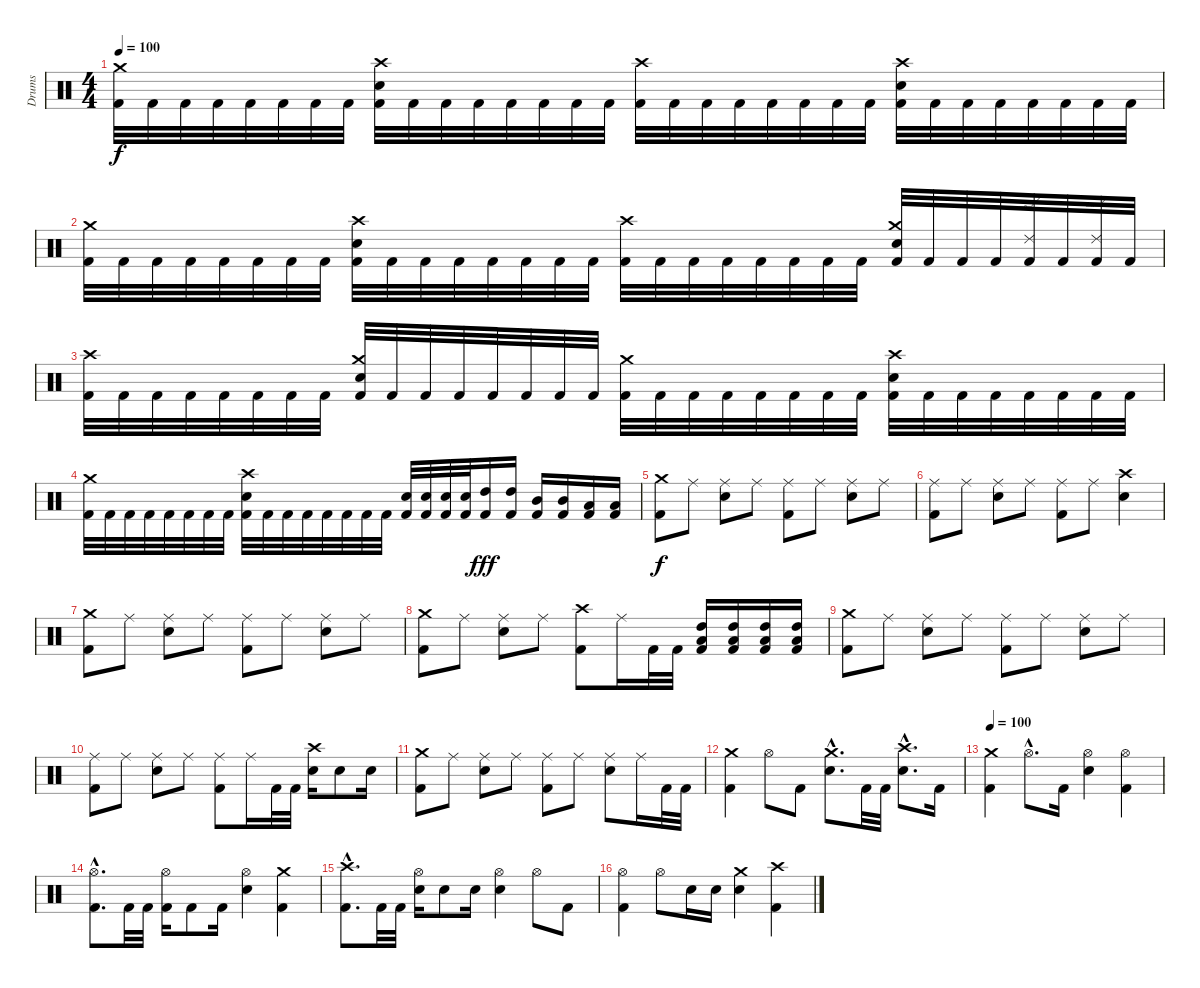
\track ("Drums" "Drums") {instrument percussion}
\staff {score}
\articulation defaults
\ts (4 4)
\tempo 100
\clef neutral
\ks c
("Kick (hit) 2" "Crash medium (hit)").32{dy f} "Kick (hit) 2".32 "Kick (hit) 2".32 "Kick (hit) 2".32 "Kick (hit) 2".32 "Kick (hit) 2".32 "Kick (hit) 2".32 "Kick (hit) 2".32 ("Kick (hit) 2" "Electric Snare (hit)" "Crash high (hit)").32 "Kick (hit) 2".32 "Kick (hit) 2".32 "Kick (hit) 2".32 "Kick (hit) 2".32 "Kick (hit) 2".32 "Kick (hit) 2".32 "Kick (hit) 2".32 ("Kick (hit) 2" "Crash high (hit)").32 "Kick (hit) 2".32 "Kick (hit) 2".32 "Kick (hit) 2".32 "Kick (hit) 2".32 "Kick (hit) 2".32 "Kick (hit) 2".32 "Kick (hit) 2".32 ("Kick (hit) 2" "Electric Snare (hit)" "Crash high (hit)").32 "Kick (hit) 2".32 "Kick (hit) 2".32 "Kick (hit) 2".32 "Kick (hit) 2".32 "Kick (hit) 2".32 "Kick (hit) 2".32 "Kick (hit) 2".32 |
("Kick (hit) 2" "Crash medium (hit)").32 "Kick (hit) 2".32 "Kick (hit) 2".32 "Kick (hit) 2".32 "Kick (hit) 2".32 "Kick (hit) 2".32 "Kick (hit) 2".32 "Kick (hit) 2".32 ("Kick (hit) 2" "Electric Snare (hit)" "Crash high (hit)").32 "Kick (hit) 2".32 "Kick (hit) 2".32 "Kick (hit) 2".32 "Kick (hit) 2".32 "Kick (hit) 2".32 "Kick (hit) 2".32 "Kick (hit) 2".32 ("Kick (hit) 2" "Crash high (hit)").32 "Kick (hit) 2".32 "Kick (hit) 2".32 "Kick (hit) 2".32 "Kick (hit) 2".32 "Kick (hit) 2".32 "Kick (hit) 2".32 "Kick (hit) 2".32 ("Kick (hit) 2" "Electric Snare (hit)" "Crash medium (hit)").32 "Kick (hit) 2".32 "Kick (hit) 2".32 "Kick (hit) 2".32 ("Kick (hit) 2" "Ride (edge) 2").32 "Kick (hit) 2".32 ("Kick (hit) 2" "Ride (edge) 2").32 "Kick (hit) 2".32 |
("Kick (hit) 2" "Crash high (hit)").32 "Kick (hit) 2".32 "Kick (hit) 2".32 "Kick (hit) 2".32 "Kick (hit) 2".32 "Kick (hit) 2".32 "Kick (hit) 2".32 "Kick (hit) 2".32 ("Kick (hit) 2" "Electric Snare (hit)" "Crash medium (hit)").32 "Kick (hit) 2".32 "Kick (hit) 2".32 "Kick (hit) 2".32 "Kick (hit) 2".32 "Kick (hit) 2".32 "Kick (hit) 2".32 "Kick (hit) 2".32 ("Kick (hit) 2" "Crash medium (hit)").32 "Kick (hit) 2".32 "Kick (hit) 2".32 "Kick (hit) 2".32 "Kick (hit) 2".32 "Kick (hit) 2".32 "Kick (hit) 2".32 "Kick (hit) 2".32 ("Kick (hit) 2" "Electric Snare (hit)" "Crash high (hit)").32 "Kick (hit) 2".32 "Kick (hit) 2".32 "Kick (hit) 2".32 "Kick (hit) 2".32 "Kick (hit) 2".32 "Kick (hit) 2".32 "Kick (hit) 2".32 |
("Kick (hit) 2" "Crash medium (hit)").32 "Kick (hit) 2".32 "Kick (hit) 2".32 "Kick (hit) 2".32 "Kick (hit) 2".32 "Kick (hit) 2".32 "Kick (hit) 2".32 "Kick (hit) 2".32 ("Kick (hit) 2" "Electric Snare (hit)" "Crash high (hit)").32 "Kick (hit) 2".32 "Kick (hit) 2".32 "Kick (hit) 2".32 "Kick (hit) 2".32 "Kick (hit) 2".32 "Kick (hit) 2".32 "Kick (hit) 2".32 ("Kick (hit) 2" "Electric Snare (hit)").32 ("Kick (hit) 2" "Electric Snare (hit)").32 ("Kick (hit) 2" "Electric Snare (hit)").32 ("Kick (hit) 2" "Electric Snare (hit)").32 ("Kick (hit) 2" "High Tom (hit)").16{dy fff} ("Kick (hit) 2" "High Tom (hit)").16 ("Kick (hit) 2" "Mid Tom (hit)").16 ("Kick (hit) 2" "Mid Tom (hit)").16 ("Kick (hit) 2" "Low Tom (hit)").16 ("Kick (hit) 2" "Low Tom (hit)").16 |
("Kick (hit) 2" "Crash medium (hit)").8{dy f} "Ride (middle)".8 ("Electric Snare (hit)" "Ride (middle)").8 "Ride (middle)".8 ("Kick (hit) 2" "Ride (middle)").8 "Ride (middle)".8 ("Electric Snare (hit)" "Ride (middle)").8 "Ride (middle)".8 |
("Kick (hit) 2" "Ride (middle)").8 "Ride (middle)".8 ("Electric Snare (hit)" "Ride (middle)").8 "Ride (middle)".8 ("Kick (hit) 2" "Ride (middle)").8 "Ride (middle)".8 ("Electric Snare (hit)" "Crash high (hit)").4 |
("Kick (hit) 2" "Crash medium (hit)").8 "Ride (middle)".8 ("Electric Snare (hit)" "Ride (middle)").8 "Ride (middle)".8 ("Kick (hit) 2" "Ride (middle)").8 "Ride (middle)".8 ("Electric Snare (hit)" "Ride (middle)").8 "Ride (middle)".8 |
("Kick (hit) 2" "Crash medium (hit)").8 "Ride (middle)".8 ("Electric Snare (hit)" "Ride (middle)").8 "Ride (middle)".8 ("Kick (hit) 2" "Crash high (hit)").8 "Ride (middle)".16 "Kick (hit) 2".32 "Kick (hit) 2".32 ("Kick (hit) 2" "High Tom (hit)" "Low Tom (hit)").16 ("Kick (hit) 2" "High Tom (hit)" "Low Tom (hit)").16 ("Kick (hit) 2" "High Tom (hit)" "Low Tom (hit)").16 ("Kick (hit) 2" "High Tom (hit)" "Low Tom (hit)").16 |
("Kick (hit) 2" "Crash medium (hit)").8 "Ride (middle)".8 ("Electric Snare (hit)" "Ride (middle)").8 "Ride (middle)".8 ("Kick (hit) 2" "Ride (middle)").8 "Ride (middle)".8 ("Electric Snare (hit)" "Ride (middle)").8 "Ride (middle)".8 |
("Kick (hit) 2" "Ride (middle)").8 "Ride (middle)".8 ("Electric Snare (hit)" "Ride (middle)").8 "Ride (middle)".8 ("Kick (hit) 2" "Ride (middle)").8 "Ride (middle)".16 "Kick (hit) 2".32 "Kick (hit) 2".32 ("Electric Snare (hit)" "Crash high (hit)").16 "Electric Snare (hit)".8 "Electric Snare (hit)".16 |
("Kick (hit) 2" "Crash medium (hit)").8 "Ride (middle)".8 ("Electric Snare (hit)" "Ride (middle)").8 "Ride (middle)".8 ("Kick (hit) 2" "Ride (middle)").8 "Ride (middle)".8 ("Electric Snare (hit)" "Ride (middle)").8 "Ride (middle)".16 "Kick (hit) 2".32 "Kick (hit) 2".32 |
("Kick (hit) 2" "Crash medium (hit)").4 "Hi-Hat (open)".8 "Kick (hit) 2".8 ("Electric Snare (hit)"{hac} "Crash medium (hit)"{hac}).8{d} "Kick (hit) 2".32 "Kick (hit) 2".32 ("Electric Snare (hit)"{hac} "Crash high (hit)"{hac}).8{d} "Kick (hit) 2".16 |
\tempo 100
("Kick (hit) 2" "Crash medium (hit)").4 "Hi-Hat (open)"{hac}.8{d} "Kick (hit) 2".16 ("Electric Snare (hit)" "Hi-Hat (open)").4 ("Kick (hit) 2" "Hi-Hat (open)").4 |
("Kick (hit) 2"{hac} "Hi-Hat (open)"{hac}).8{d} "Kick (hit) 2".32 "Kick (hit) 2".32 ("Kick (hit) 2" "Hi-Hat (open)").16 "Kick (hit) 2".8 "Kick (hit) 2".16 ("Electric Snare (hit)" "Hi-Hat (open)").4 ("Kick (hit) 2" "Crash medium (hit)").4 |
("Kick (hit) 2"{hac} "Crash high (hit)"{hac}).8{d} "Kick (hit) 2".32 "Kick (hit) 2".32 ("Electric Snare (hit)" "Hi-Hat (open)").16 "Electric Snare (hit)".8 "Electric Snare (hit)".16 ("Electric Snare (hit)" "Hi-Hat (open)").4 "Hi-Hat (open)".8 "Kick (hit) 2".8 |
("Kick (hit) 2" "Hi-Hat (open)").4 "Hi-Hat (open)".8 "Electric Snare (hit)".16 "Electric Snare (hit)".16 ("Electric Snare (hit)" "Crash medium (hit)").4 ("Kick (hit) 2" "Crash high (hit)").4
